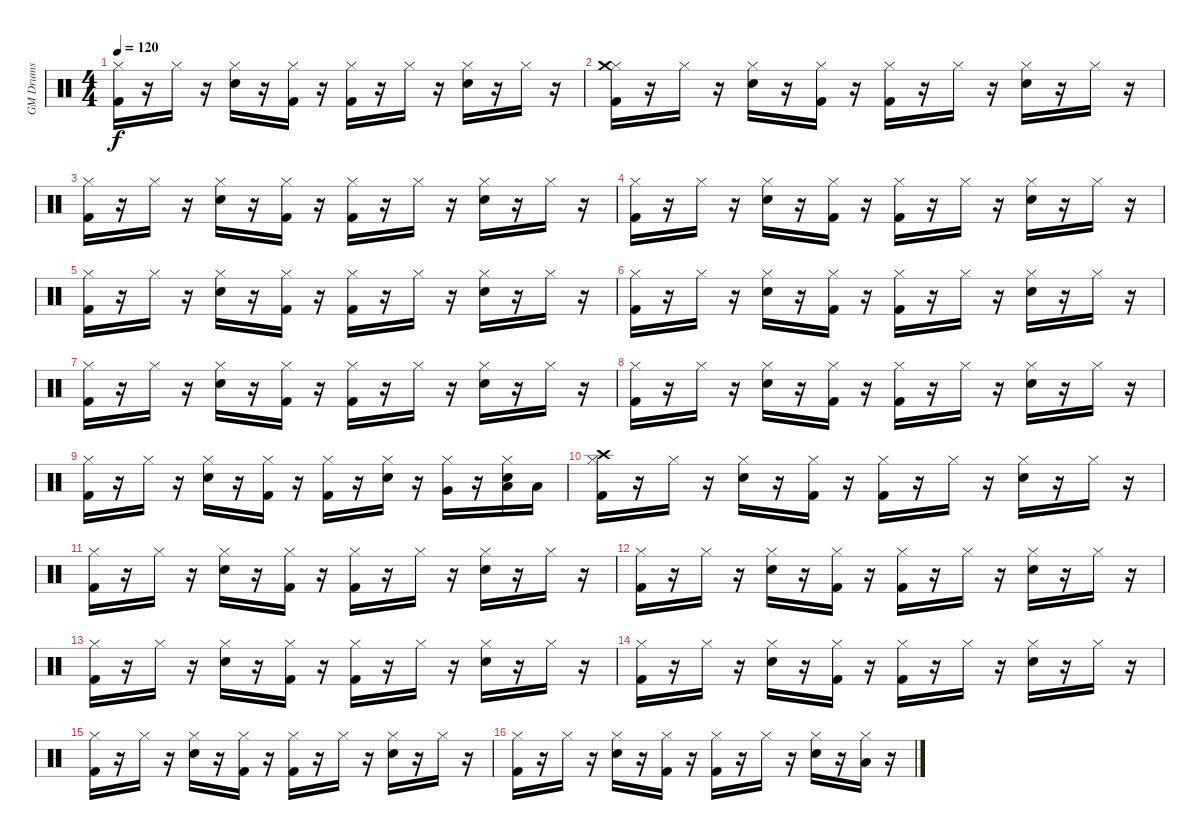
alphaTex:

\track ("GM Drums" "GM Drums") {instrument percussion}
\staff {score}
\articulation defaults
\ts (4 4)
\tempo 120
\clef neutral
\ks c
("Kick (hit) 2" "Hi-Hat (closed)").16{dy f} r.16 "Hi-Hat (closed)".16 r.16 ("Snare (hit) 2" "Hi-Hat (closed)").16 r.16 ("Kick (hit) 2" "Hi-Hat (closed)").16 r.16 ("Kick (hit) 2" "Hi-Hat (closed)").16 r.16 "Hi-Hat (closed)".16 r.16 ("Snare (hit) 2" "Hi-Hat (closed)").16 r.16 "Hi-Hat (closed)".16 r.16 |
("Kick (hit) 2" "Hi-Hat (closed)" "Crash medium (hit)").16 r.16 "Hi-Hat (closed)".16 r.16 ("Snare (hit) 2" "Hi-Hat (closed)").16 r.16 ("Kick (hit) 2" "Hi-Hat (closed)").16 r.16 ("Kick (hit) 2" "Hi-Hat (closed)").16 r.16 "Hi-Hat (closed)".16 r.16 ("Snare (hit) 2" "Hi-Hat (closed)").16 r.16 "Hi-Hat (closed)".16 r.16 |
("Kick (hit) 2" "Hi-Hat (closed)").16 r.16 "Hi-Hat (closed)".16 r.16 ("Snare (hit) 2" "Hi-Hat (closed)").16 r.16 ("Kick (hit) 2" "Hi-Hat (closed)").16 r.16 ("Kick (hit) 2" "Hi-Hat (closed)").16 r.16 "Hi-Hat (closed)".16 r.16 ("Snare (hit) 2" "Hi-Hat (closed)").16 r.16 "Hi-Hat (closed)".16 r.16 |
("Kick (hit) 2" "Hi-Hat (closed)").16 r.16 "Hi-Hat (closed)".16 r.16 ("Snare (hit) 2" "Hi-Hat (closed)").16 r.16 ("Kick (hit) 2" "Hi-Hat (closed)").16 r.16 ("Kick (hit) 2" "Hi-Hat (closed)").16 r.16 "Hi-Hat (closed)".16 r.16 ("Snare (hit) 2" "Hi-Hat (closed)").16 r.16 "Hi-Hat (closed)".16 r.16 |
("Kick (hit) 2" "Hi-Hat (closed)").16 r.16 "Hi-Hat (closed)".16 r.16 ("Snare (hit) 2" "Hi-Hat (closed)").16 r.16 ("Kick (hit) 2" "Hi-Hat (closed)").16 r.16 ("Kick (hit) 2" "Hi-Hat (closed)").16 r.16 "Hi-Hat (closed)".16 r.16 ("Snare (hit) 2" "Hi-Hat (closed)").16 r.16 "Hi-Hat (closed)".16 r.16 |
("Kick (hit) 2" "Hi-Hat (closed)").16 r.16 "Hi-Hat (closed)".16 r.16 ("Snare (hit) 2" "Hi-Hat (closed)").16 r.16 ("Kick (hit) 2" "Hi-Hat (closed)").16 r.16 ("Kick (hit) 2" "Hi-Hat (closed)").16 r.16 "Hi-Hat (closed)".16 r.16 ("Snare (hit) 2" "Hi-Hat (closed)").16 r.16 "Hi-Hat (closed)".16 r.16 |
("Kick (hit) 2" "Hi-Hat (closed)").16 r.16 "Hi-Hat (closed)".16 r.16 ("Snare (hit) 2" "Hi-Hat (closed)").16 r.16 ("Kick (hit) 2" "Hi-Hat (closed)").16 r.16 ("Kick (hit) 2" "Hi-Hat (closed)").16 r.16 "Hi-Hat (closed)".16 r.16 ("Snare (hit) 2" "Hi-Hat (closed)").16 r.16 "Hi-Hat (closed)".16 r.16 |
("Kick (hit) 2" "Hi-Hat (closed)").16 r.16 "Hi-Hat (closed)".16 r.16 ("Snare (hit) 2" "Hi-Hat (closed)").16 r.16 ("Kick (hit) 2" "Hi-Hat (closed)").16 r.16 ("Kick (hit) 2" "Hi-Hat (closed)").16 r.16 "Hi-Hat (closed)".16 r.16 ("Snare (hit) 2" "Hi-Hat (closed)").16 r.16 "Hi-Hat (closed)".16 r.16 |
("Kick (hit) 2" "Hi-Hat (closed)").16 r.16 "Hi-Hat (closed)".16 r.16 ("Snare (hit) 2" "Hi-Hat (closed)").16 r.16 ("Kick (hit) 2" "Hi-Hat (closed)").16 r.16 ("Kick (hit) 2" "Hi-Hat (closed)").16 r.16 ("Snare (hit) 2" "Hi-Hat (closed)").16 r.16 ("Hi-Hat (closed)" "Very Low Tom (hit)").16 r.16 ("Snare (hit) 2" "Hi-Hat (closed)" "Low Tom (hit)").16 "Low Tom (hit)".16 |
("Kick (hit) 2" "Hi-Hat (closed)" "Crash high (hit)").16 r.16 "Hi-Hat (closed)".16 r.16 ("Snare (hit) 2" "Hi-Hat (closed)").16 r.16 ("Kick (hit) 2" "Hi-Hat (closed)").16 r.16 ("Kick (hit) 2" "Hi-Hat (closed)").16 r.16 "Hi-Hat (closed)".16 r.16 ("Snare (hit) 2" "Hi-Hat (closed)").16 r.16 "Hi-Hat (closed)".16 r.16 |
("Kick (hit) 2" "Hi-Hat (closed)").16 r.16 "Hi-Hat (closed)".16 r.16 ("Snare (hit) 2" "Hi-Hat (closed)").16 r.16 ("Kick (hit) 2" "Hi-Hat (closed)").16 r.16 ("Kick (hit) 2" "Hi-Hat (closed)").16 r.16 "Hi-Hat (closed)".16 r.16 ("Snare (hit) 2" "Hi-Hat (closed)").16 r.16 "Hi-Hat (closed)".16 r.16 |
("Kick (hit) 2" "Hi-Hat (closed)").16 r.16 "Hi-Hat (closed)".16 r.16 ("Snare (hit) 2" "Hi-Hat (closed)").16 r.16 ("Kick (hit) 2" "Hi-Hat (closed)").16 r.16 ("Kick (hit) 2" "Hi-Hat (closed)").16 r.16 "Hi-Hat (closed)".16 r.16 ("Snare (hit) 2" "Hi-Hat (closed)").16 r.16 "Hi-Hat (closed)".16 r.16 |
("Kick (hit) 2" "Hi-Hat (closed)").16 r.16 "Hi-Hat (closed)".16 r.16 ("Snare (hit) 2" "Hi-Hat (closed)").16 r.16 ("Kick (hit) 2" "Hi-Hat (closed)").16 r.16 ("Kick (hit) 2" "Hi-Hat (closed)").16 r.16 "Hi-Hat (closed)".16 r.16 ("Snare (hit) 2" "Hi-Hat (closed)").16 r.16 "Hi-Hat (closed)".16 r.16 |
("Kick (hit) 2" "Hi-Hat (closed)").16 r.16 "Hi-Hat (closed)".16 r.16 ("Snare (hit) 2" "Hi-Hat (closed)").16 r.16 ("Kick (hit) 2" "Hi-Hat (closed)").16 r.16 ("Kick (hit) 2" "Hi-Hat (closed)").16 r.16 "Hi-Hat (closed)".16 r.16 ("Snare (hit) 2" "Hi-Hat (closed)").16 r.16 "Hi-Hat (closed)".16 r.16 |
("Kick (hit) 2" "Hi-Hat (closed)").16 r.16 "Hi-Hat (closed)".16 r.16 ("Snare (hit) 2" "Hi-Hat (closed)").16 r.16 ("Kick (hit) 2" "Hi-Hat (closed)").16 r.16 ("Kick (hit) 2" "Hi-Hat (closed)").16 r.16 "Hi-Hat (closed)".16 r.16 ("Snare (hit) 2" "Hi-Hat (closed)").16 r.16 "Hi-Hat (closed)".16 r.16 |
("Kick (hit) 2" "Hi-Hat (closed)").16 r.16 "Hi-Hat (closed)".16 r.16 ("Snare (hit) 2" "Hi-Hat (closed)").16 r.16 ("Kick (hit) 2" "Hi-Hat (closed)").16 r.16 ("Kick (hit) 2" "Hi-Hat (closed)").16 r.16 "Hi-Hat (closed)".16 r.16 ("Snare (hit) 2" "Hi-Hat (closed)").16 r.16 ("Low Floor Tom (hit)" "Hi-Hat (closed)").16 r.16
